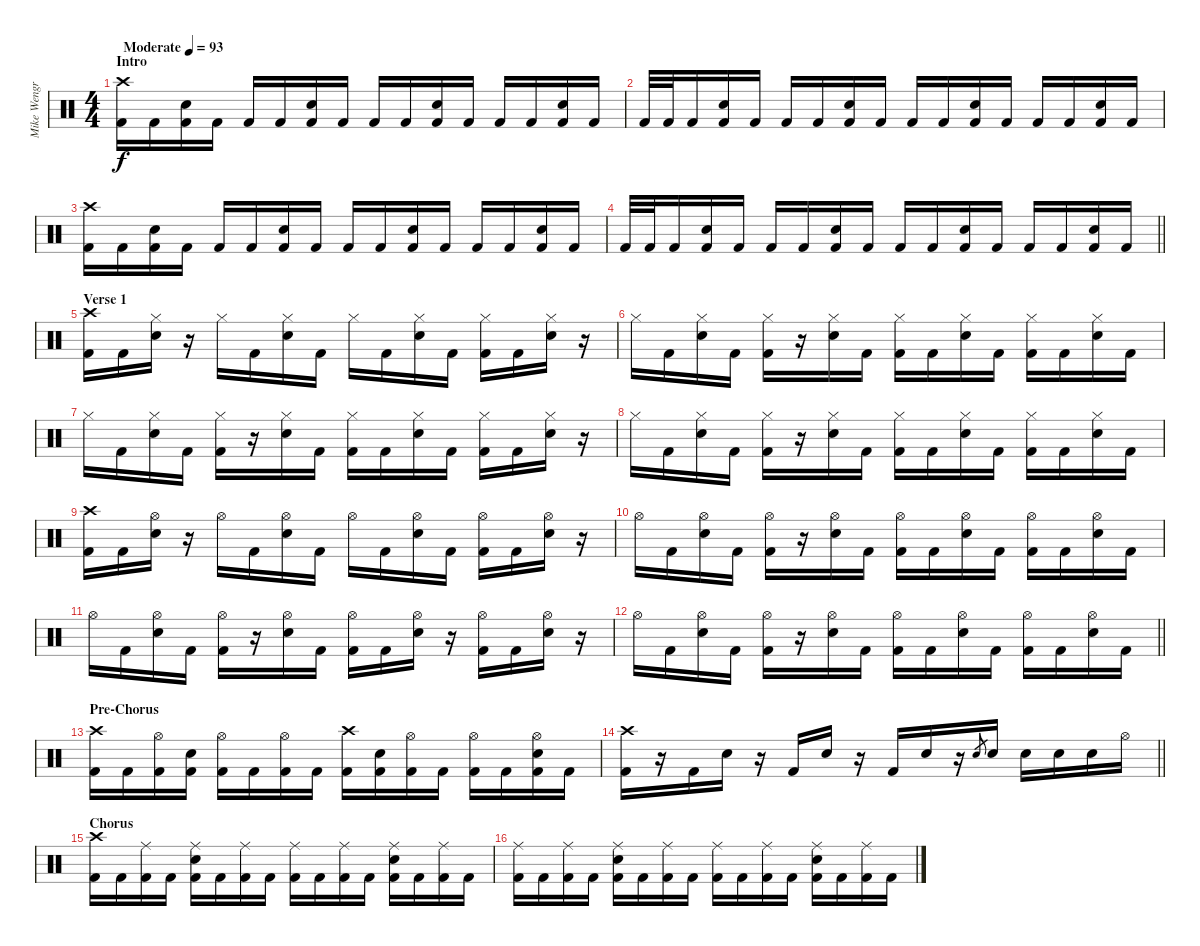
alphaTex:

\track ("Mike Wengren" "Mike Wengr") {instrument percussion}
\staff {score}
\articulation defaults
\ts (4 4)
\section ("" "Intro")
\tempo (93 "Moderate")
\clef neutral
\ks c
("Crash high (hit)" "Kick (hit) 2").16{dy f} "Kick (hit) 2".16 ("Electric Snare (hit)" "Kick (hit) 2").16 "Kick (hit) 2".16 "Kick (hit) 2".16 "Kick (hit) 2".16 ("Electric Snare (hit)" "Kick (hit) 2").16 "Kick (hit) 2".16 "Kick (hit) 2".16 "Kick (hit) 2".16 ("Electric Snare (hit)" "Kick (hit) 2").16 "Kick (hit) 2".16 "Kick (hit) 2".16 "Kick (hit) 2".16 ("Electric Snare (hit)" "Kick (hit) 2").16 "Kick (hit) 2".16 |
"Kick (hit) 2".32 "Kick (hit) 2".32 "Kick (hit) 2".16 ("Electric Snare (hit)" "Kick (hit) 2").16 "Kick (hit) 2".16 "Kick (hit) 2".16 "Kick (hit) 2".16 ("Electric Snare (hit)" "Kick (hit) 2").16 "Kick (hit) 2".16 "Kick (hit) 2".16 "Kick (hit) 2".16 ("Electric Snare (hit)" "Kick (hit) 2").16 "Kick (hit) 2".16 "Kick (hit) 2".16 "Kick (hit) 2".16 ("Electric Snare (hit)" "Kick (hit) 2").16 "Kick (hit) 2".16 |
("Crash high (hit)" "Kick (hit) 2").16 "Kick (hit) 2".16 ("Electric Snare (hit)" "Kick (hit) 2").16 "Kick (hit) 2".16 "Kick (hit) 2".16 "Kick (hit) 2".16 ("Electric Snare (hit)" "Kick (hit) 2").16 "Kick (hit) 2".16 "Kick (hit) 2".16 "Kick (hit) 2".16 ("Electric Snare (hit)" "Kick (hit) 2").16 "Kick (hit) 2".16 "Kick (hit) 2".16 "Kick (hit) 2".16 ("Electric Snare (hit)" "Kick (hit) 2").16 "Kick (hit) 2".16 |
\barLineRight lightlight "Kick (hit) 2".32 "Kick (hit) 2".32 "Kick (hit) 2".16
("Electric Snare (hit)" "Kick (hit) 2").16 "Kick (hit) 2".16 "Kick (hit) 2".16 "Kick (hit) 2".16 ("Electric Snare (hit)" "Kick (hit) 2").16 "Kick (hit) 2".16 "Kick (hit) 2".16 "Kick (hit) 2".16 ("Electric Snare (hit)" "Kick (hit) 2").16 "Kick (hit) 2".16 "Kick (hit) 2".16 "Kick (hit) 2".16 ("Electric Snare (hit)" "Kick (hit) 2").16 "Kick (hit) 2".16 |
\section ("" "Verse 1")
("Crash high (hit)" "Kick (hit) 2").16 "Kick (hit) 2".16 ("Hi-Hat (closed)" "Electric Snare (hit)").16 r.16 "Hi-Hat (closed)".16 "Kick (hit) 2".16 ("Hi-Hat (closed)" "Electric Snare (hit)").16 "Kick (hit) 2".16 "Hi-Hat (closed)".16 "Kick (hit) 2".16 ("Hi-Hat (closed)" "Electric Snare (hit)").16 "Kick (hit) 2".16 ("Hi-Hat (closed)" "Kick (hit) 2").16 "Kick (hit) 2".16 ("Hi-Hat (closed)" "Electric Snare (hit)").16 r.16 |
"Hi-Hat (closed)".16 "Kick (hit) 2".16 ("Hi-Hat (closed)" "Electric Snare (hit)").16 "Kick (hit) 2".16 ("Hi-Hat (closed)" "Kick (hit) 2").16 r.16 ("Hi-Hat (closed)" "Electric Snare (hit)").16 "Kick (hit) 2".16 ("Hi-Hat (closed)" "Kick (hit) 2").16 "Kick (hit) 2".16 ("Hi-Hat (closed)" "Electric Snare (hit)").16 "Kick (hit) 2".16 ("Hi-Hat (closed)" "Kick (hit) 2").16 "Kick (hit) 2".16 ("Hi-Hat (closed)" "Electric Snare (hit)").16 "Kick (hit) 2".16 |
"Hi-Hat (closed)".16 "Kick (hit) 2".16 ("Hi-Hat (closed)" "Electric Snare (hit)").16 "Kick (hit) 2".16 ("Hi-Hat (closed)" "Kick (hit) 2").16 r.16 ("Hi-Hat (closed)" "Electric Snare (hit)").16 "Kick (hit) 2".16 ("Hi-Hat (closed)" "Kick (hit) 2").16 "Kick (hit) 2".16 ("Hi-Hat (closed)" "Electric Snare (hit)").16 "Kick (hit) 2".16 ("Hi-Hat (closed)" "Kick (hit) 2").16 "Kick (hit) 2".16 ("Hi-Hat (closed)" "Electric Snare (hit)").16 r.16 |
"Hi-Hat (closed)".16 "Kick (hit) 2".16 ("Hi-Hat (closed)" "Electric Snare (hit)").16 "Kick (hit) 2".16 ("Hi-Hat (closed)" "Kick (hit) 2").16 r.16 ("Hi-Hat (closed)" "Electric Snare (hit)").16 "Kick (hit) 2".16 ("Hi-Hat (closed)" "Kick (hit) 2").16 "Kick (hit) 2".16 ("Hi-Hat (closed)" "Electric Snare (hit)").16 "Kick (hit) 2".16 ("Hi-Hat (closed)" "Kick (hit) 2").16 "Kick (hit) 2".16 ("Hi-Hat (closed)" "Electric Snare (hit)").16 "Kick (hit) 2".16 |
("Crash high (hit)" "Kick (hit) 2").16 "Kick (hit) 2".16 ("Hi-Hat (open)" "Electric Snare (hit)").16 r.16 "Hi-Hat (open)".16 "Kick (hit) 2".16 ("Hi-Hat (open)" "Electric Snare (hit)").16 "Kick (hit) 2".16 "Hi-Hat (open)".16 "Kick (hit) 2".16 ("Hi-Hat (open)" "Electric Snare (hit)").16 "Kick (hit) 2".16 ("Hi-Hat (open)" "Kick (hit) 2").16 "Kick (hit) 2".16 ("Hi-Hat (open)" "Electric Snare (hit)").16 r.16 |
"Hi-Hat (open)".16 "Kick (hit) 2".16 ("Hi-Hat (open)" "Electric Snare (hit)").16 "Kick (hit) 2".16 ("Hi-Hat (open)" "Kick (hit) 2").16 r.16 ("Hi-Hat (open)" "Electric Snare (hit)").16 "Kick (hit) 2".16 ("Hi-Hat (open)" "Kick (hit) 2").16 "Kick (hit) 2".16 ("Hi-Hat (open)" "Electric Snare (hit)").16 "Kick (hit) 2".16 ("Hi-Hat (open)" "Kick (hit) 2").16 "Kick (hit) 2".16 ("Hi-Hat (open)" "Electric Snare (hit)").16 "Kick (hit) 2".16 |
"Hi-Hat (open)".16 "Kick (hit) 2".16 ("Hi-Hat (open)" "Electric Snare (hit)").16 "Kick (hit) 2".16 ("Hi-Hat (open)" "Kick (hit) 2").16 r.16 ("Hi-Hat (open)" "Electric Snare (hit)").16 "Kick (hit) 2".16 ("Hi-Hat (open)" "Kick (hit) 2").16 "Kick (hit) 2".16 ("Hi-Hat (open)" "Electric Snare (hit)").16 r.16 ("Hi-Hat (open)" "Kick (hit) 2").16 "Kick (hit) 2".16 ("Hi-Hat (open)" "Electric Snare (hit)").16 r.16 |
\barLineRight lightlight "Hi-Hat (open)".16 "Kick (hit) 2".16
("Hi-Hat (open)" "Electric Snare (hit)").16 "Kick (hit) 2".16 ("Hi-Hat (open)" "Kick (hit) 2").16 r.16 ("Hi-Hat (open)" "Electric Snare (hit)").16 "Kick (hit) 2".16 ("Hi-Hat (open)" "Kick (hit) 2").16 "Kick (hit) 2".16 ("Hi-Hat (open)" "Electric Snare (hit)").16 "Kick (hit) 2".16 ("Hi-Hat (open)" "Kick (hit) 2").16 "Kick (hit) 2".16 ("Hi-Hat (open)" "Electric Snare (hit)").16 "Kick (hit) 2".16 |
\section ("" "Pre-Chorus")
("Crash high (hit)" "Kick (hit) 2").16 "Kick (hit) 2".16 ("Hi-Hat (open)" "Kick (hit) 2").16 ("Electric Snare (hit)" "Kick (hit) 2").16 ("Hi-Hat (open)" "Kick (hit) 2").16 "Kick (hit) 2".16 ("Hi-Hat (open)" "Kick (hit) 2").16 "Kick (hit) 2".16 ("Crash high (hit)" "Kick (hit) 2").16 ("Electric Snare (hit)" "Kick (hit) 2").16 ("Hi-Hat (open)" "Kick (hit) 2").16 "Kick (hit) 2".16 ("Hi-Hat (open)" "Kick (hit) 2").16 "Kick (hit) 2".16 ("Hi-Hat (open)" "Electric Snare (hit)" "Kick (hit) 2").16 "Kick (hit) 2".16 |
\barLineRight lightlight
("Crash high (hit)" "Kick (hit) 2").16 r.16 "Kick (hit) 2".16 "Electric Snare (hit)".16 r.16 "Kick (hit) 2".16 "Electric Snare (hit)".16 r.16 "Kick (hit) 2".16 "Electric Snare (hit)".16 r.16 "Electric Snare (hit)".8{gr} "Electric Snare (hit)".16 "Electric Snare (hit)".16 "Electric Snare (hit)".16 "Electric Snare (hit)".16 "Hi-Hat (open)".16 |
\section ("" "Chorus")
("Crash high (hit)" "Kick (hit) 2").16 "Kick (hit) 2".16 ("Ride (middle)" "Kick (hit) 2").16 "Kick (hit) 2".16 ("Ride (middle)" "Electric Snare (hit)" "Kick (hit) 2").16 "Kick (hit) 2".16 ("Ride (middle)" "Kick (hit) 2").16 "Kick (hit) 2".16 ("Ride (middle)" "Kick (hit) 2").16 "Kick (hit) 2".16 ("Ride (middle)" "Kick (hit) 2").16 "Kick (hit) 2".16 ("Ride (middle)" "Electric Snare (hit)" "Kick (hit) 2").16 "Kick (hit) 2".16 ("Ride (middle)" "Kick (hit) 2").16 "Kick (hit) 2".16 |
("Ride (middle)" "Kick (hit) 2").16 "Kick (hit) 2".16 ("Ride (middle)" "Kick (hit) 2").16 "Kick (hit) 2".16 ("Ride (middle)" "Electric Snare (hit)" "Kick (hit) 2").16 "Kick (hit) 2".16 ("Ride (middle)" "Kick (hit) 2").16 "Kick (hit) 2".16 ("Ride (middle)" "Kick (hit) 2").16 "Kick (hit) 2".16 ("Ride (middle)" "Kick (hit) 2").16 "Kick (hit) 2".16 ("Ride (middle)" "Electric Snare (hit)" "Kick (hit) 2").16 "Kick (hit) 2".16 ("Ride (middle)" "Kick (hit) 2").16 "Kick (hit) 2".16
